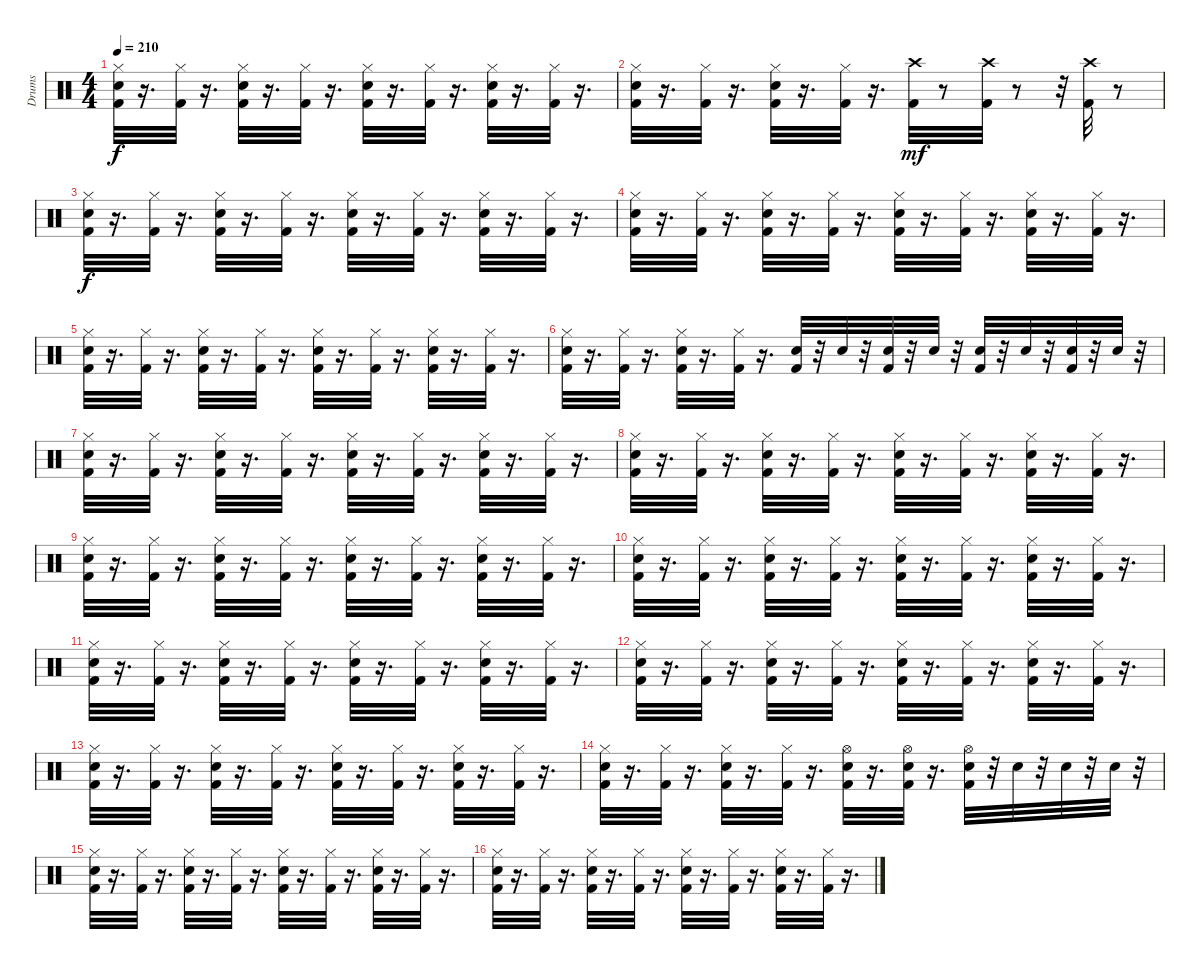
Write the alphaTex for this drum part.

\track ("Drums" "Drums") {instrument percussion}
\staff {score}
\articulation defaults
\ts (4 4)
\tempo 210
\clef neutral
\ks c
("Kick (hit) 2" "Snare (hit) 2" "Hi-Hat (closed)").32{dy f} r.16{d} ("Kick (hit) 2" "Hi-Hat (closed)").32 r.16{d} ("Kick (hit) 2" "Snare (hit) 2" "Hi-Hat (closed)").32 r.16{d} ("Kick (hit) 2" "Hi-Hat (closed)").32 r.16{d} ("Kick (hit) 2" "Snare (hit) 2" "Hi-Hat (closed)").32 r.16{d} ("Kick (hit) 2" "Hi-Hat (closed)").32 r.16{d} ("Kick (hit) 2" "Snare (hit) 2" "Hi-Hat (closed)").32 r.16{d} ("Kick (hit) 2" "Hi-Hat (closed)").32 r.16{d} |
("Kick (hit) 2" "Snare (hit) 2" "Hi-Hat (closed)").32 r.16{d} ("Kick (hit) 2" "Hi-Hat (closed)").32 r.16{d} ("Kick (hit) 2" "Snare (hit) 2" "Hi-Hat (closed)").32 r.16{d} ("Kick (hit) 2" "Hi-Hat (closed)").32 r.16{d} ("Kick (hit) 2" "Crash high (hit)").32{dy mf} r.8 ("Kick (hit) 2" "Crash high (hit)").32 r.8 r.32 ("Kick (hit) 2" "Crash high (hit)").32 r.8 |
("Kick (hit) 2" "Snare (hit) 2" "Hi-Hat (closed)").32{dy f} r.16{d} ("Kick (hit) 2" "Hi-Hat (closed)").32 r.16{d} ("Kick (hit) 2" "Snare (hit) 2" "Hi-Hat (closed)").32 r.16{d} ("Kick (hit) 2" "Hi-Hat (closed)").32 r.16{d} ("Kick (hit) 2" "Snare (hit) 2" "Hi-Hat (closed)").32 r.16{d} ("Kick (hit) 2" "Hi-Hat (closed)").32 r.16{d} ("Kick (hit) 2" "Snare (hit) 2" "Hi-Hat (closed)").32 r.16{d} ("Kick (hit) 2" "Hi-Hat (closed)").32 r.16{d} |
("Kick (hit) 2" "Snare (hit) 2" "Hi-Hat (closed)").32 r.16{d} ("Kick (hit) 2" "Hi-Hat (closed)").32 r.16{d} ("Kick (hit) 2" "Snare (hit) 2" "Hi-Hat (closed)").32 r.16{d} ("Kick (hit) 2" "Hi-Hat (closed)").32 r.16{d} ("Kick (hit) 2" "Snare (hit) 2" "Hi-Hat (closed)").32 r.16{d} ("Kick (hit) 2" "Hi-Hat (closed)").32 r.16{d} ("Kick (hit) 2" "Snare (hit) 2" "Hi-Hat (closed)").32 r.16{d} ("Kick (hit) 2" "Hi-Hat (closed)").32 r.16{d} |
("Kick (hit) 2" "Snare (hit) 2" "Hi-Hat (closed)").32 r.16{d} ("Kick (hit) 2" "Hi-Hat (closed)").32 r.16{d} ("Kick (hit) 2" "Snare (hit) 2" "Hi-Hat (closed)").32 r.16{d} ("Kick (hit) 2" "Hi-Hat (closed)").32 r.16{d} ("Kick (hit) 2" "Snare (hit) 2" "Hi-Hat (closed)").32 r.16{d} ("Kick (hit) 2" "Hi-Hat (closed)").32 r.16{d} ("Kick (hit) 2" "Snare (hit) 2" "Hi-Hat (closed)").32 r.16{d} ("Kick (hit) 2" "Hi-Hat (closed)").32 r.16{d} |
("Kick (hit) 2" "Snare (hit) 2" "Hi-Hat (closed)").32 r.16{d} ("Kick (hit) 2" "Hi-Hat (closed)").32 r.16{d} ("Kick (hit) 2" "Snare (hit) 2" "Hi-Hat (closed)").32 r.16{d} ("Kick (hit) 2" "Hi-Hat (closed)").32 r.16{d} ("Kick (hit) 2" "Snare (hit) 2").32 r.32 "Snare (hit) 2".32 r.32 ("Kick (hit) 2" "Snare (hit) 2").32 r.32 "Snare (hit) 2".32 r.32 ("Kick (hit) 2" "Snare (hit) 2").32 r.32 "Snare (hit) 2".32 r.32 ("Kick (hit) 2" "Snare (hit) 2").32 r.32 "Snare (hit) 2".32 r.32 |
("Kick (hit) 2" "Snare (hit) 2" "Hi-Hat (closed)").32 r.16{d} ("Kick (hit) 2" "Hi-Hat (closed)").32 r.16{d} ("Kick (hit) 2" "Snare (hit) 2" "Hi-Hat (closed)").32 r.16{d} ("Kick (hit) 2" "Hi-Hat (closed)").32 r.16{d} ("Kick (hit) 2" "Snare (hit) 2" "Hi-Hat (closed)").32 r.16{d} ("Kick (hit) 2" "Hi-Hat (closed)").32 r.16{d} ("Kick (hit) 2" "Snare (hit) 2" "Hi-Hat (closed)").32 r.16{d} ("Kick (hit) 2" "Hi-Hat (closed)").32 r.16{d} |
("Kick (hit) 2" "Snare (hit) 2" "Hi-Hat (closed)").32 r.16{d} ("Kick (hit) 2" "Hi-Hat (closed)").32 r.16{d} ("Kick (hit) 2" "Snare (hit) 2" "Hi-Hat (closed)").32 r.16{d} ("Kick (hit) 2" "Hi-Hat (closed)").32 r.16{d} ("Kick (hit) 2" "Snare (hit) 2" "Hi-Hat (closed)").32 r.16{d} ("Kick (hit) 2" "Hi-Hat (closed)").32 r.16{d} ("Kick (hit) 2" "Snare (hit) 2" "Hi-Hat (closed)").32 r.16{d} ("Kick (hit) 2" "Hi-Hat (closed)").32 r.16{d} |
("Kick (hit) 2" "Snare (hit) 2" "Hi-Hat (closed)").32 r.16{d} ("Kick (hit) 2" "Hi-Hat (closed)").32 r.16{d} ("Kick (hit) 2" "Snare (hit) 2" "Hi-Hat (closed)").32 r.16{d} ("Kick (hit) 2" "Hi-Hat (closed)").32 r.16{d} ("Kick (hit) 2" "Snare (hit) 2" "Hi-Hat (closed)").32 r.16{d} ("Kick (hit) 2" "Hi-Hat (closed)").32 r.16{d} ("Kick (hit) 2" "Snare (hit) 2" "Hi-Hat (closed)").32 r.16{d} ("Kick (hit) 2" "Hi-Hat (closed)").32 r.16{d} |
("Kick (hit) 2" "Snare (hit) 2" "Hi-Hat (closed)").32 r.16{d} ("Kick (hit) 2" "Hi-Hat (closed)").32 r.16{d} ("Kick (hit) 2" "Snare (hit) 2" "Hi-Hat (closed)").32 r.16{d} ("Kick (hit) 2" "Hi-Hat (closed)").32 r.16{d} ("Kick (hit) 2" "Snare (hit) 2" "Hi-Hat (closed)").32 r.16{d} ("Kick (hit) 2" "Hi-Hat (closed)").32 r.16{d} ("Kick (hit) 2" "Snare (hit) 2" "Hi-Hat (closed)").32 r.16{d} ("Kick (hit) 2" "Hi-Hat (closed)").32 r.16{d} |
("Kick (hit) 2" "Snare (hit) 2" "Hi-Hat (closed)").32 r.16{d} ("Kick (hit) 2" "Hi-Hat (closed)").32 r.16{d} ("Kick (hit) 2" "Snare (hit) 2" "Hi-Hat (closed)").32 r.16{d} ("Kick (hit) 2" "Hi-Hat (closed)").32 r.16{d} ("Kick (hit) 2" "Snare (hit) 2" "Hi-Hat (closed)").32 r.16{d} ("Kick (hit) 2" "Hi-Hat (closed)").32 r.16{d} ("Kick (hit) 2" "Snare (hit) 2" "Hi-Hat (closed)").32 r.16{d} ("Kick (hit) 2" "Hi-Hat (closed)").32 r.16{d} |
("Kick (hit) 2" "Snare (hit) 2" "Hi-Hat (closed)").32 r.16{d} ("Kick (hit) 2" "Hi-Hat (closed)").32 r.16{d} ("Kick (hit) 2" "Snare (hit) 2" "Hi-Hat (closed)").32 r.16{d} ("Kick (hit) 2" "Hi-Hat (closed)").32 r.16{d} ("Kick (hit) 2" "Snare (hit) 2" "Hi-Hat (closed)").32 r.16{d} ("Kick (hit) 2" "Hi-Hat (closed)").32 r.16{d} ("Kick (hit) 2" "Snare (hit) 2" "Hi-Hat (closed)").32 r.16{d} ("Kick (hit) 2" "Hi-Hat (closed)").32 r.16{d} |
("Kick (hit) 2" "Snare (hit) 2" "Hi-Hat (closed)").32 r.16{d} ("Kick (hit) 2" "Hi-Hat (closed)").32 r.16{d} ("Kick (hit) 2" "Snare (hit) 2" "Hi-Hat (closed)").32 r.16{d} ("Kick (hit) 2" "Hi-Hat (closed)").32 r.16{d} ("Kick (hit) 2" "Snare (hit) 2" "Hi-Hat (closed)").32 r.16{d} ("Kick (hit) 2" "Hi-Hat (closed)").32 r.16{d} ("Kick (hit) 2" "Snare (hit) 2" "Hi-Hat (closed)").32 r.16{d} ("Kick (hit) 2" "Hi-Hat (closed)").32 r.16{d} |
("Kick (hit) 2" "Snare (hit) 2" "Hi-Hat (closed)").32 r.16{d} ("Kick (hit) 2" "Hi-Hat (closed)").32 r.16{d} ("Kick (hit) 2" "Snare (hit) 2" "Hi-Hat (closed)").32 r.16{d} ("Kick (hit) 2" "Hi-Hat (closed)").32 r.16{d} ("Kick (hit) 2" "Snare (hit) 2" "Hi-Hat (open)").32 r.16{d} ("Kick (hit) 2" "Snare (hit) 2" "Hi-Hat (open)").32 r.16{d} ("Kick (hit) 2" "Snare (hit) 2" "Hi-Hat (open)").32 r.32 "Snare (hit) 2".32 r.32 "Snare (hit) 2".32 r.32 "Snare (hit) 2".32 r.32 |
("Kick (hit) 2" "Snare (hit) 2" "Hi-Hat (closed)").32 r.16{d} ("Kick (hit) 2" "Hi-Hat (closed)").32 r.16{d} ("Kick (hit) 2" "Snare (hit) 2" "Hi-Hat (closed)").32 r.16{d} ("Kick (hit) 2" "Hi-Hat (closed)").32 r.16{d} ("Kick (hit) 2" "Snare (hit) 2" "Hi-Hat (closed)").32 r.16{d} ("Kick (hit) 2" "Hi-Hat (closed)").32 r.16{d} ("Kick (hit) 2" "Snare (hit) 2" "Hi-Hat (closed)").32 r.16{d} ("Kick (hit) 2" "Hi-Hat (closed)").32 r.16{d} |
("Kick (hit) 2" "Snare (hit) 2" "Hi-Hat (closed)").32 r.16{d} ("Kick (hit) 2" "Hi-Hat (closed)").32 r.16{d} ("Kick (hit) 2" "Snare (hit) 2" "Hi-Hat (closed)").32 r.16{d} ("Kick (hit) 2" "Hi-Hat (closed)").32 r.16{d} ("Kick (hit) 2" "Snare (hit) 2" "Hi-Hat (closed)").32 r.16{d} ("Kick (hit) 2" "Hi-Hat (closed)").32 r.16{d} ("Kick (hit) 2" "Snare (hit) 2" "Hi-Hat (closed)").32 r.16{d} ("Kick (hit) 2" "Hi-Hat (closed)").32 r.16{d}
